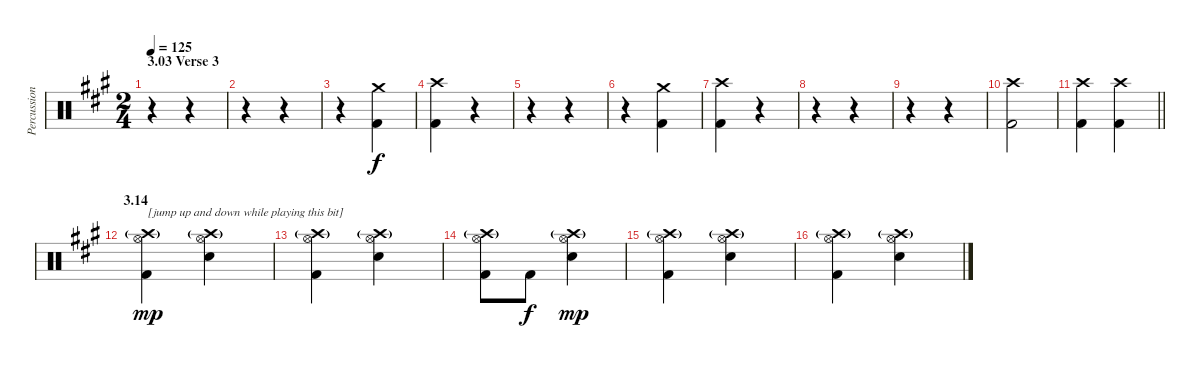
\track ("Percussion" "Percussion") {instrument percussion}
\staff {score}
\articulation defaults
\ts (2 4)
\section ("" "3.03 Verse 3")
\tempo 125
\clef neutral
\ks f#minor
r.4{dy f} r.4 |
r.4 r.4 |
r.4 ("Crash medium (hit)" "Kick (hit) 2").4 |
("Crash high (hit)" "Kick (hit) 2").4 r.4 |
r.4 r.4 |
r.4 ("Crash medium (hit)" "Kick (hit) 2").4 |
("Crash high (hit)" "Kick (hit) 2").4 r.4 |
r.4 r.4 |
r.4 r.4 |
("Crash high (hit)" "Kick (hit) 2").2 |
\barLineRight lightlight
("Crash high (hit)" "Kick (hit) 2").4 ("Crash high (hit)" "Kick (hit) 2").4 |
\section ("" "3.14")
("Crash high (hit)"{g} "Hi-Hat (open)" "Kick (hit) 2").4{txt "[jump up and down while playing this bit]" dy mp} ("Crash high (hit)"{g} "Hi-Hat (open)" "Electric Snare (hit)").4 |
("Crash high (hit)"{g} "Hi-Hat (open)" "Kick (hit) 2").4 ("Crash high (hit)"{g} "Hi-Hat (open)" "Electric Snare (hit)").4 |
("Crash high (hit)"{g} "Hi-Hat (open)" "Kick (hit) 2").8 "Kick (hit) 2".8{dy f} ("Crash high (hit)"{g} "Hi-Hat (open)" "Electric Snare (hit)").4{dy mp} |
("Crash high (hit)"{g} "Hi-Hat (open)" "Kick (hit) 2").4 ("Crash high (hit)"{g} "Hi-Hat (open)" "Electric Snare (hit)").4 |
("Crash high (hit)"{g} "Hi-Hat (open)" "Kick (hit) 2").4 ("Crash high (hit)"{g} "Hi-Hat (open)" "Electric Snare (hit)").4
